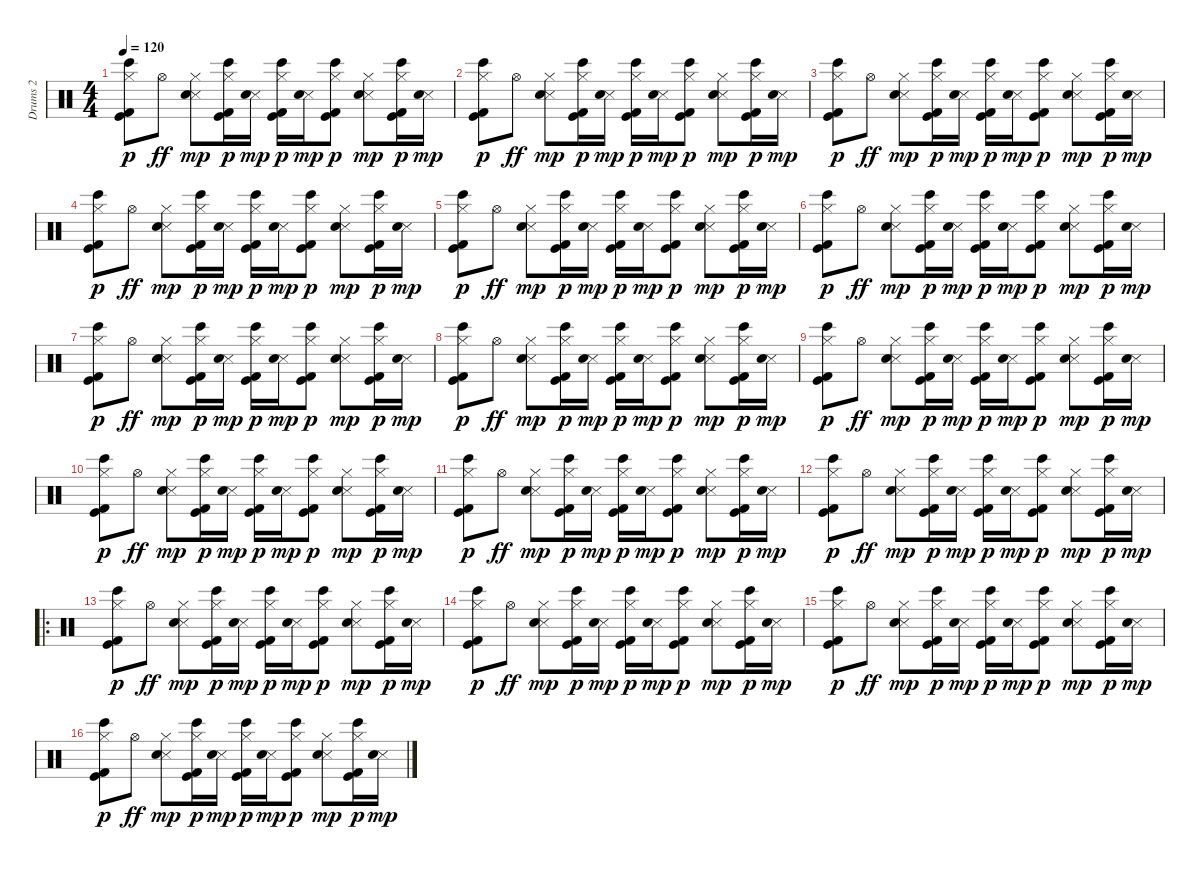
\track ("Drums 2" "Drums 2") {instrument percussion}
\staff {score}
\articulation defaults
\ts (4 4)
\tempo 120
\clef neutral
\ks c
("Hi-Hat (closed)" "Bongo High (hit)" "Kick (hit) 2" "Kick (hit)").8{dy p} "Hi-Hat (open)".8{dy ff} ("Hi-Hat (closed)" "Metronome (hit)" "Electric Snare (hit)").8{dy mp} ("Hi-Hat (closed)" "Bongo High (hit)" "Kick (hit) 2" "Kick (hit)").16{dy p} ("Metronome (hit)" "Electric Snare (hit)").16{dy mp} ("Hi-Hat (closed)" "Bongo High (hit)" "Kick (hit) 2" "Kick (hit)").16{dy p} ("Metronome (hit)" "Electric Snare (hit)").16{dy mp} ("Hi-Hat (closed)" "Bongo High (hit)" "Kick (hit) 2" "Kick (hit)").8{dy p} ("Hi-Hat (closed)" "Metronome (hit)" "Electric Snare (hit)").8{dy mp} ("Hi-Hat (closed)" "Bongo High (hit)" "Kick (hit) 2" "Kick (hit)").16{dy p} ("Metronome (hit)" "Electric Snare (hit)").16{dy mp} |
("Hi-Hat (closed)" "Bongo High (hit)" "Kick (hit) 2" "Kick (hit)").8{dy p} "Hi-Hat (open)".8{dy ff} ("Hi-Hat (closed)" "Metronome (hit)" "Electric Snare (hit)").8{dy mp} ("Hi-Hat (closed)" "Bongo High (hit)" "Kick (hit) 2" "Kick (hit)").16{dy p} ("Metronome (hit)" "Electric Snare (hit)").16{dy mp} ("Hi-Hat (closed)" "Bongo High (hit)" "Kick (hit) 2" "Kick (hit)").16{dy p} ("Metronome (hit)" "Electric Snare (hit)").16{dy mp} ("Hi-Hat (closed)" "Bongo High (hit)" "Kick (hit) 2" "Kick (hit)").8{dy p} ("Hi-Hat (closed)" "Metronome (hit)" "Electric Snare (hit)").8{dy mp} ("Hi-Hat (closed)" "Bongo High (hit)" "Kick (hit) 2" "Kick (hit)").16{dy p} ("Metronome (hit)" "Electric Snare (hit)").16{dy mp} |
("Hi-Hat (closed)" "Bongo High (hit)" "Kick (hit) 2" "Kick (hit)").8{dy p} "Hi-Hat (open)".8{dy ff} ("Hi-Hat (closed)" "Metronome (hit)" "Electric Snare (hit)").8{dy mp} ("Hi-Hat (closed)" "Bongo High (hit)" "Kick (hit) 2" "Kick (hit)").16{dy p} ("Metronome (hit)" "Electric Snare (hit)").16{dy mp} ("Hi-Hat (closed)" "Bongo High (hit)" "Kick (hit) 2" "Kick (hit)").16{dy p} ("Metronome (hit)" "Electric Snare (hit)").16{dy mp} ("Hi-Hat (closed)" "Bongo High (hit)" "Kick (hit) 2" "Kick (hit)").8{dy p} ("Hi-Hat (closed)" "Metronome (hit)" "Electric Snare (hit)").8{dy mp} ("Hi-Hat (closed)" "Bongo High (hit)" "Kick (hit) 2" "Kick (hit)").16{dy p} ("Metronome (hit)" "Electric Snare (hit)").16{dy mp} |
("Hi-Hat (closed)" "Bongo High (hit)" "Kick (hit) 2" "Kick (hit)").8{dy p} "Hi-Hat (open)".8{dy ff} ("Hi-Hat (closed)" "Metronome (hit)" "Electric Snare (hit)").8{dy mp} ("Hi-Hat (closed)" "Bongo High (hit)" "Kick (hit) 2" "Kick (hit)").16{dy p} ("Metronome (hit)" "Electric Snare (hit)").16{dy mp} ("Hi-Hat (closed)" "Bongo High (hit)" "Kick (hit) 2" "Kick (hit)").16{dy p} ("Metronome (hit)" "Electric Snare (hit)").16{dy mp} ("Hi-Hat (closed)" "Bongo High (hit)" "Kick (hit) 2" "Kick (hit)").8{dy p} ("Hi-Hat (closed)" "Metronome (hit)" "Electric Snare (hit)").8{dy mp} ("Hi-Hat (closed)" "Bongo High (hit)" "Kick (hit) 2" "Kick (hit)").16{dy p} ("Metronome (hit)" "Electric Snare (hit)").16{dy mp} |
("Hi-Hat (closed)" "Bongo High (hit)" "Kick (hit) 2" "Kick (hit)").8{dy p} "Hi-Hat (open)".8{dy ff} ("Hi-Hat (closed)" "Metronome (hit)" "Electric Snare (hit)").8{dy mp} ("Hi-Hat (closed)" "Bongo High (hit)" "Kick (hit) 2" "Kick (hit)").16{dy p} ("Metronome (hit)" "Electric Snare (hit)").16{dy mp} ("Hi-Hat (closed)" "Bongo High (hit)" "Kick (hit) 2" "Kick (hit)").16{dy p} ("Metronome (hit)" "Electric Snare (hit)").16{dy mp} ("Hi-Hat (closed)" "Bongo High (hit)" "Kick (hit) 2" "Kick (hit)").8{dy p} ("Hi-Hat (closed)" "Metronome (hit)" "Electric Snare (hit)").8{dy mp} ("Hi-Hat (closed)" "Bongo High (hit)" "Kick (hit) 2" "Kick (hit)").16{dy p} ("Metronome (hit)" "Electric Snare (hit)").16{dy mp} |
("Hi-Hat (closed)" "Bongo High (hit)" "Kick (hit) 2" "Kick (hit)").8{dy p} "Hi-Hat (open)".8{dy ff} ("Hi-Hat (closed)" "Metronome (hit)" "Electric Snare (hit)").8{dy mp} ("Hi-Hat (closed)" "Bongo High (hit)" "Kick (hit) 2" "Kick (hit)").16{dy p} ("Metronome (hit)" "Electric Snare (hit)").16{dy mp} ("Hi-Hat (closed)" "Bongo High (hit)" "Kick (hit) 2" "Kick (hit)").16{dy p} ("Metronome (hit)" "Electric Snare (hit)").16{dy mp} ("Hi-Hat (closed)" "Bongo High (hit)" "Kick (hit) 2" "Kick (hit)").8{dy p} ("Hi-Hat (closed)" "Metronome (hit)" "Electric Snare (hit)").8{dy mp} ("Hi-Hat (closed)" "Bongo High (hit)" "Kick (hit) 2" "Kick (hit)").16{dy p} ("Metronome (hit)" "Electric Snare (hit)").16{dy mp} |
("Hi-Hat (closed)" "Bongo High (hit)" "Kick (hit) 2" "Kick (hit)").8{dy p} "Hi-Hat (open)".8{dy ff} ("Hi-Hat (closed)" "Metronome (hit)" "Electric Snare (hit)").8{dy mp} ("Hi-Hat (closed)" "Bongo High (hit)" "Kick (hit) 2" "Kick (hit)").16{dy p} ("Metronome (hit)" "Electric Snare (hit)").16{dy mp} ("Hi-Hat (closed)" "Bongo High (hit)" "Kick (hit) 2" "Kick (hit)").16{dy p} ("Metronome (hit)" "Electric Snare (hit)").16{dy mp} ("Hi-Hat (closed)" "Bongo High (hit)" "Kick (hit) 2" "Kick (hit)").8{dy p} ("Hi-Hat (closed)" "Metronome (hit)" "Electric Snare (hit)").8{dy mp} ("Hi-Hat (closed)" "Bongo High (hit)" "Kick (hit) 2" "Kick (hit)").16{dy p} ("Metronome (hit)" "Electric Snare (hit)").16{dy mp} |
("Hi-Hat (closed)" "Bongo High (hit)" "Kick (hit) 2" "Kick (hit)").8{dy p} "Hi-Hat (open)".8{dy ff} ("Hi-Hat (closed)" "Metronome (hit)" "Electric Snare (hit)").8{dy mp} ("Hi-Hat (closed)" "Bongo High (hit)" "Kick (hit) 2" "Kick (hit)").16{dy p} ("Metronome (hit)" "Electric Snare (hit)").16{dy mp} ("Hi-Hat (closed)" "Bongo High (hit)" "Kick (hit) 2" "Kick (hit)").16{dy p} ("Metronome (hit)" "Electric Snare (hit)").16{dy mp} ("Hi-Hat (closed)" "Bongo High (hit)" "Kick (hit) 2" "Kick (hit)").8{dy p} ("Hi-Hat (closed)" "Metronome (hit)" "Electric Snare (hit)").8{dy mp} ("Hi-Hat (closed)" "Bongo High (hit)" "Kick (hit) 2" "Kick (hit)").16{dy p} ("Metronome (hit)" "Electric Snare (hit)").16{dy mp} |
("Hi-Hat (closed)" "Bongo High (hit)" "Kick (hit) 2" "Kick (hit)").8{dy p} "Hi-Hat (open)".8{dy ff} ("Hi-Hat (closed)" "Metronome (hit)" "Electric Snare (hit)").8{dy mp} ("Hi-Hat (closed)" "Bongo High (hit)" "Kick (hit) 2" "Kick (hit)").16{dy p} ("Metronome (hit)" "Electric Snare (hit)").16{dy mp} ("Hi-Hat (closed)" "Bongo High (hit)" "Kick (hit) 2" "Kick (hit)").16{dy p} ("Metronome (hit)" "Electric Snare (hit)").16{dy mp} ("Hi-Hat (closed)" "Bongo High (hit)" "Kick (hit) 2" "Kick (hit)").8{dy p} ("Hi-Hat (closed)" "Metronome (hit)" "Electric Snare (hit)").8{dy mp} ("Hi-Hat (closed)" "Bongo High (hit)" "Kick (hit) 2" "Kick (hit)").16{dy p} ("Metronome (hit)" "Electric Snare (hit)").16{dy mp} |
("Hi-Hat (closed)" "Bongo High (hit)" "Kick (hit) 2" "Kick (hit)").8{dy p} "Hi-Hat (open)".8{dy ff} ("Hi-Hat (closed)" "Metronome (hit)" "Electric Snare (hit)").8{dy mp} ("Hi-Hat (closed)" "Bongo High (hit)" "Kick (hit) 2" "Kick (hit)").16{dy p} ("Metronome (hit)" "Electric Snare (hit)").16{dy mp} ("Hi-Hat (closed)" "Bongo High (hit)" "Kick (hit) 2" "Kick (hit)").16{dy p} ("Metronome (hit)" "Electric Snare (hit)").16{dy mp} ("Hi-Hat (closed)" "Bongo High (hit)" "Kick (hit) 2" "Kick (hit)").8{dy p} ("Hi-Hat (closed)" "Metronome (hit)" "Electric Snare (hit)").8{dy mp} ("Hi-Hat (closed)" "Bongo High (hit)" "Kick (hit) 2" "Kick (hit)").16{dy p} ("Metronome (hit)" "Electric Snare (hit)").16{dy mp} |
("Hi-Hat (closed)" "Bongo High (hit)" "Kick (hit) 2" "Kick (hit)").8{dy p} "Hi-Hat (open)".8{dy ff} ("Hi-Hat (closed)" "Metronome (hit)" "Electric Snare (hit)").8{dy mp} ("Hi-Hat (closed)" "Bongo High (hit)" "Kick (hit) 2" "Kick (hit)").16{dy p} ("Metronome (hit)" "Electric Snare (hit)").16{dy mp} ("Hi-Hat (closed)" "Bongo High (hit)" "Kick (hit) 2" "Kick (hit)").16{dy p} ("Metronome (hit)" "Electric Snare (hit)").16{dy mp} ("Hi-Hat (closed)" "Bongo High (hit)" "Kick (hit) 2" "Kick (hit)").8{dy p} ("Hi-Hat (closed)" "Metronome (hit)" "Electric Snare (hit)").8{dy mp} ("Hi-Hat (closed)" "Bongo High (hit)" "Kick (hit) 2" "Kick (hit)").16{dy p} ("Metronome (hit)" "Electric Snare (hit)").16{dy mp} |
("Hi-Hat (closed)" "Bongo High (hit)" "Kick (hit) 2" "Kick (hit)").8{dy p} "Hi-Hat (open)".8{dy ff} ("Hi-Hat (closed)" "Metronome (hit)" "Electric Snare (hit)").8{dy mp} ("Hi-Hat (closed)" "Bongo High (hit)" "Kick (hit) 2" "Kick (hit)").16{dy p} ("Metronome (hit)" "Electric Snare (hit)").16{dy mp} ("Hi-Hat (closed)" "Bongo High (hit)" "Kick (hit) 2" "Kick (hit)").16{dy p} ("Metronome (hit)" "Electric Snare (hit)").16{dy mp} ("Hi-Hat (closed)" "Bongo High (hit)" "Kick (hit) 2" "Kick (hit)").8{dy p} ("Hi-Hat (closed)" "Metronome (hit)" "Electric Snare (hit)").8{dy mp} ("Hi-Hat (closed)" "Bongo High (hit)" "Kick (hit) 2" "Kick (hit)").16{dy p} ("Metronome (hit)" "Electric Snare (hit)").16{dy mp} |
\ro
("Hi-Hat (closed)" "Bongo High (hit)" "Kick (hit) 2" "Kick (hit)").8{dy p} "Hi-Hat (open)".8{dy ff} ("Hi-Hat (closed)" "Metronome (hit)" "Electric Snare (hit)").8{dy mp} ("Hi-Hat (closed)" "Bongo High (hit)" "Kick (hit) 2" "Kick (hit)").16{dy p} ("Metronome (hit)" "Electric Snare (hit)").16{dy mp} ("Hi-Hat (closed)" "Bongo High (hit)" "Kick (hit) 2" "Kick (hit)").16{dy p} ("Metronome (hit)" "Electric Snare (hit)").16{dy mp} ("Hi-Hat (closed)" "Bongo High (hit)" "Kick (hit) 2" "Kick (hit)").8{dy p} ("Hi-Hat (closed)" "Metronome (hit)" "Electric Snare (hit)").8{dy mp} ("Hi-Hat (closed)" "Bongo High (hit)" "Kick (hit) 2" "Kick (hit)").16{dy p} ("Metronome (hit)" "Electric Snare (hit)").16{dy mp} |
("Hi-Hat (closed)" "Bongo High (hit)" "Kick (hit) 2" "Kick (hit)").8{dy p} "Hi-Hat (open)".8{dy ff} ("Hi-Hat (closed)" "Metronome (hit)" "Electric Snare (hit)").8{dy mp} ("Hi-Hat (closed)" "Bongo High (hit)" "Kick (hit) 2" "Kick (hit)").16{dy p} ("Metronome (hit)" "Electric Snare (hit)").16{dy mp} ("Hi-Hat (closed)" "Bongo High (hit)" "Kick (hit) 2" "Kick (hit)").16{dy p} ("Metronome (hit)" "Electric Snare (hit)").16{dy mp} ("Hi-Hat (closed)" "Bongo High (hit)" "Kick (hit) 2" "Kick (hit)").8{dy p} ("Hi-Hat (closed)" "Metronome (hit)" "Electric Snare (hit)").8{dy mp} ("Hi-Hat (closed)" "Bongo High (hit)" "Kick (hit) 2" "Kick (hit)").16{dy p} ("Metronome (hit)" "Electric Snare (hit)").16{dy mp} |
("Hi-Hat (closed)" "Bongo High (hit)" "Kick (hit) 2" "Kick (hit)").8{dy p} "Hi-Hat (open)".8{dy ff} ("Hi-Hat (closed)" "Metronome (hit)" "Electric Snare (hit)").8{dy mp} ("Hi-Hat (closed)" "Bongo High (hit)" "Kick (hit) 2" "Kick (hit)").16{dy p} ("Metronome (hit)" "Electric Snare (hit)").16{dy mp} ("Hi-Hat (closed)" "Bongo High (hit)" "Kick (hit) 2" "Kick (hit)").16{dy p} ("Metronome (hit)" "Electric Snare (hit)").16{dy mp} ("Hi-Hat (closed)" "Bongo High (hit)" "Kick (hit) 2" "Kick (hit)").8{dy p} ("Hi-Hat (closed)" "Metronome (hit)" "Electric Snare (hit)").8{dy mp} ("Hi-Hat (closed)" "Bongo High (hit)" "Kick (hit) 2" "Kick (hit)").16{dy p} ("Metronome (hit)" "Electric Snare (hit)").16{dy mp} |
("Hi-Hat (closed)" "Bongo High (hit)" "Kick (hit) 2" "Kick (hit)").8{dy p} "Hi-Hat (open)".8{dy ff} ("Hi-Hat (closed)" "Metronome (hit)" "Electric Snare (hit)").8{dy mp} ("Hi-Hat (closed)" "Bongo High (hit)" "Kick (hit) 2" "Kick (hit)").16{dy p} ("Metronome (hit)" "Electric Snare (hit)").16{dy mp} ("Hi-Hat (closed)" "Bongo High (hit)" "Kick (hit) 2" "Kick (hit)").16{dy p} ("Metronome (hit)" "Electric Snare (hit)").16{dy mp} ("Hi-Hat (closed)" "Bongo High (hit)" "Kick (hit) 2" "Kick (hit)").8{dy p} ("Hi-Hat (closed)" "Metronome (hit)" "Electric Snare (hit)").8{dy mp} ("Hi-Hat (closed)" "Bongo High (hit)" "Kick (hit) 2" "Kick (hit)").16{dy p} ("Metronome (hit)" "Electric Snare (hit)").16{dy mp}
